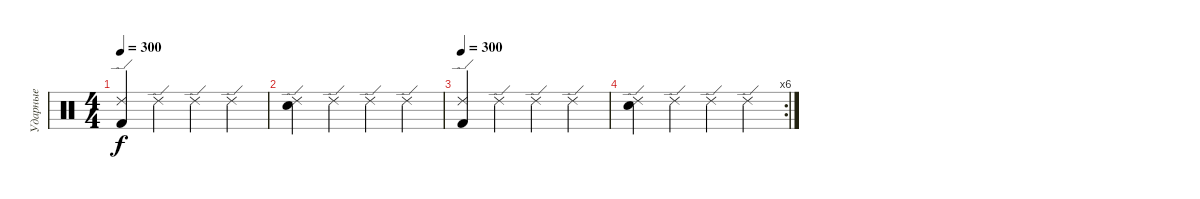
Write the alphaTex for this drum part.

\track ("Ударные" "Ударные") {instrument percussion}
\staff {score}
\articulation defaults
\ts (4 4)
\tempo 300
\clef neutral
\ks c
("Ride (edge) 2" "Kick (hit) 2").4{dy f} "Ride (edge) 2".4 "Ride (edge) 2".4 "Ride (edge) 2".4 |
("Ride (edge) 2" "Snare (hit) 2").4 "Ride (edge) 2".4 "Ride (edge) 2".4 "Ride (edge) 2".4 |
\tempo 300
("Ride (edge) 2" "Kick (hit) 2").4 "Ride (edge) 2".4 "Ride (edge) 2".4 "Ride (edge) 2".4 |
\rc 6
("Ride (edge) 2" "Snare (hit) 2").4 "Ride (edge) 2".4 "Ride (edge) 2".4 "Ride (edge) 2".4
